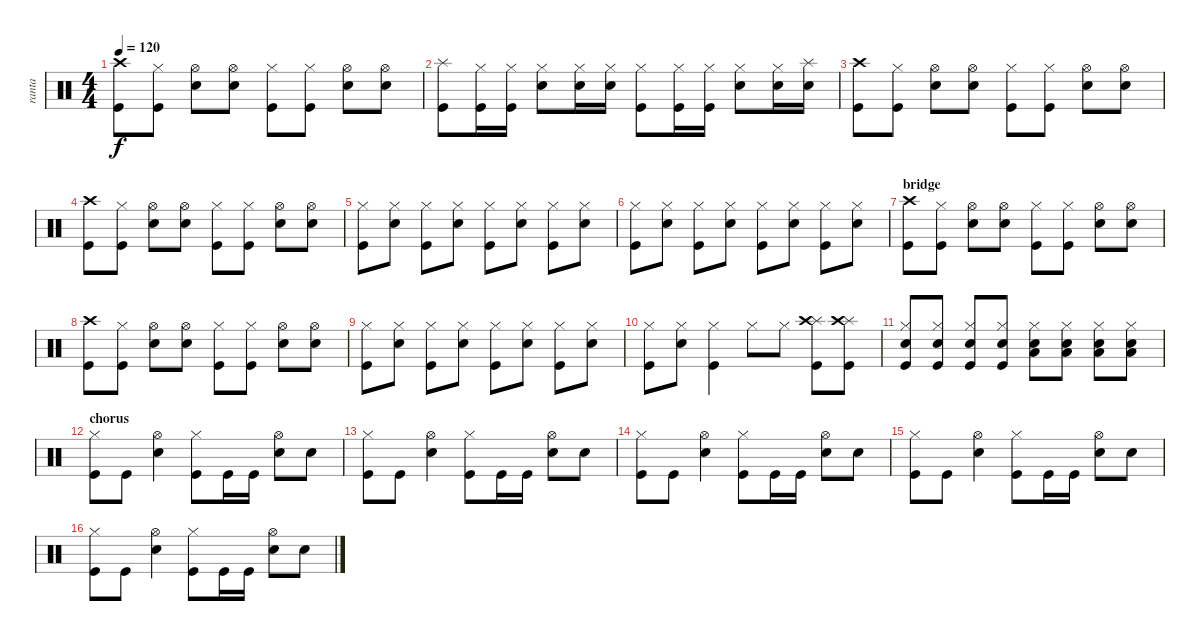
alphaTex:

\track ("ranta" "ranta") {instrument percussion}
\staff {score}
\articulation defaults
\ts (4 4)
\tempo 120
\clef neutral
\ks c
("Crash high (hit)" "Kick (hit)").8{dy f} ("Hi-Hat (closed)" "Kick (hit)").8 ("Hi-Hat (open)" "Snare (hit) 2").8 ("Hi-Hat (open)" "Snare (hit) 2").8 ("Hi-Hat (closed)" "Kick (hit)").8 ("Hi-Hat (closed)" "Kick (hit)").8 ("Hi-Hat (open)" "Snare (hit) 2").8 ("Hi-Hat (open)" "Snare (hit) 2").8 |
("Splash (hit)" "Kick (hit)").8 ("Hi-Hat (closed)" "Kick (hit)").16 ("Hi-Hat (closed)" "Kick (hit)").16 ("Hi-Hat (closed)" "Snare (hit) 2").8 ("Hi-Hat (closed)" "Snare (hit) 2").16 ("Hi-Hat (closed)" "Snare (hit) 2").16 ("Hi-Hat (closed)" "Kick (hit)").8 ("Hi-Hat (closed)" "Kick (hit)").16 ("Hi-Hat (closed)" "Kick (hit)").16 ("Hi-Hat (closed)" "Snare (hit) 2").8 ("Hi-Hat (closed)" "Snare (hit) 2").16 ("Splash (hit)" "Snare (hit) 2").16 |
("Crash high (hit)" "Kick (hit)").8 ("Hi-Hat (closed)" "Kick (hit)").8 ("Hi-Hat (open)" "Snare (hit) 2").8 ("Hi-Hat (open)" "Snare (hit) 2").8 ("Hi-Hat (closed)" "Kick (hit)").8 ("Hi-Hat (closed)" "Kick (hit)").8 ("Hi-Hat (open)" "Snare (hit) 2").8 ("Hi-Hat (open)" "Snare (hit) 2").8 |
("Crash high (hit)" "Kick (hit)").8 ("Hi-Hat (closed)" "Kick (hit)").8 ("Hi-Hat (open)" "Snare (hit) 2").8 ("Hi-Hat (open)" "Snare (hit) 2").8 ("Hi-Hat (closed)" "Kick (hit)").8 ("Hi-Hat (closed)" "Kick (hit)").8 ("Hi-Hat (open)" "Snare (hit) 2").8 ("Hi-Hat (open)" "Snare (hit) 2").8 |
("Hi-Hat (closed)" "Kick (hit)").8 ("Hi-Hat (closed)" "Snare (hit) 2").8 ("Hi-Hat (closed)" "Kick (hit)").8 ("Hi-Hat (closed)" "Snare (hit) 2").8 ("Hi-Hat (closed)" "Kick (hit)").8 ("Hi-Hat (closed)" "Snare (hit) 2").8 ("Hi-Hat (closed)" "Kick (hit)").8 ("Hi-Hat (closed)" "Snare (hit) 2").8 |
("Hi-Hat (closed)" "Kick (hit)").8 ("Hi-Hat (closed)" "Snare (hit) 2").8 ("Hi-Hat (closed)" "Kick (hit)").8 ("Hi-Hat (closed)" "Snare (hit) 2").8 ("Hi-Hat (closed)" "Kick (hit)").8 ("Hi-Hat (closed)" "Snare (hit) 2").8 ("Hi-Hat (closed)" "Kick (hit)").8 ("Hi-Hat (closed)" "Snare (hit) 2").8 |
\section ("" "bridge")
("Crash high (hit)" "Kick (hit)").8 ("Hi-Hat (closed)" "Kick (hit)").8 ("Hi-Hat (open)" "Snare (hit) 2").8 ("Hi-Hat (open)" "Snare (hit) 2").8 ("Hi-Hat (closed)" "Kick (hit)").8 ("Hi-Hat (closed)" "Kick (hit)").8 ("Hi-Hat (open)" "Snare (hit) 2").8 ("Hi-Hat (open)" "Snare (hit) 2").8 |
("Crash high (hit)" "Kick (hit)").8 ("Hi-Hat (closed)" "Kick (hit)").8 ("Hi-Hat (open)" "Snare (hit) 2").8 ("Hi-Hat (open)" "Snare (hit) 2").8 ("Hi-Hat (closed)" "Kick (hit)").8 ("Hi-Hat (closed)" "Kick (hit)").8 ("Hi-Hat (open)" "Snare (hit) 2").8 ("Hi-Hat (open)" "Snare (hit) 2").8 |
("Hi-Hat (closed)" "Kick (hit)").8 ("Hi-Hat (closed)" "Snare (hit) 2").8 ("Hi-Hat (closed)" "Kick (hit)").8 ("Hi-Hat (closed)" "Snare (hit) 2").8 ("Hi-Hat (closed)" "Kick (hit)").8 ("Hi-Hat (closed)" "Snare (hit) 2").8 ("Hi-Hat (closed)" "Kick (hit)").8 ("Hi-Hat (closed)" "Snare (hit) 2").8 |
("Hi-Hat (closed)" "Kick (hit)").8 ("Hi-Hat (closed)" "Snare (hit) 2").8 ("Hi-Hat (closed)" "Kick (hit)").4 "Hi-Hat (closed)".8 "Hi-Hat (closed)".8 ("Splash (hit)" "Crash high (hit)" "Kick (hit)").8 ("Splash (hit)" "Crash high (hit)" "Kick (hit)").8 |
("Hi-Hat (closed)" "Snare (hit) 2" "Kick (hit)").8 ("Hi-Hat (closed)" "Snare (hit) 2" "Kick (hit)").8 ("Hi-Hat (closed)" "Snare (hit) 2" "Kick (hit)").8 ("Hi-Hat (closed)" "Snare (hit) 2" "Kick (hit)").8 ("Hi-Hat (closed)" "Snare (hit) 2" "Low Floor Tom (hit)").8 ("Hi-Hat (closed)" "Snare (hit) 2" "Low Floor Tom (hit)").8 ("Hi-Hat (closed)" "Snare (hit) 2" "Low Floor Tom (hit)").8 ("Hi-Hat (closed)" "Snare (hit) 2" "Low Floor Tom (hit)").8 |
\section ("" "chorus")
("Hi-Hat (closed)" "Kick (hit)").8 "Kick (hit)".8 ("Hi-Hat (open)" "Snare (hit) 2").4 ("Hi-Hat (closed)" "Kick (hit)").8 "Kick (hit)".16 "Kick (hit)".16 ("Hi-Hat (open)" "Snare (hit) 2").8 "Snare (hit) 2".8 |
("Hi-Hat (closed)" "Kick (hit)").8 "Kick (hit)".8 ("Hi-Hat (open)" "Snare (hit) 2").4 ("Hi-Hat (closed)" "Kick (hit)").8 "Kick (hit)".16 "Kick (hit)".16 ("Hi-Hat (open)" "Snare (hit) 2").8 "Snare (hit) 2".8 |
("Hi-Hat (closed)" "Kick (hit)").8 "Kick (hit)".8 ("Hi-Hat (open)" "Snare (hit) 2").4 ("Hi-Hat (closed)" "Kick (hit)").8 "Kick (hit)".16 "Kick (hit)".16 ("Hi-Hat (open)" "Snare (hit) 2").8 "Snare (hit) 2".8 |
("Hi-Hat (closed)" "Kick (hit)").8 "Kick (hit)".8 ("Hi-Hat (open)" "Snare (hit) 2").4 ("Hi-Hat (closed)" "Kick (hit)").8 "Kick (hit)".16 "Kick (hit)".16 ("Hi-Hat (open)" "Snare (hit) 2").8 "Snare (hit) 2".8 |
("Hi-Hat (closed)" "Kick (hit)").8 "Kick (hit)".8 ("Hi-Hat (open)" "Snare (hit) 2").4 ("Hi-Hat (closed)" "Kick (hit)").8 "Kick (hit)".16 "Kick (hit)".16 ("Hi-Hat (open)" "Snare (hit) 2").8 "Snare (hit) 2".8
